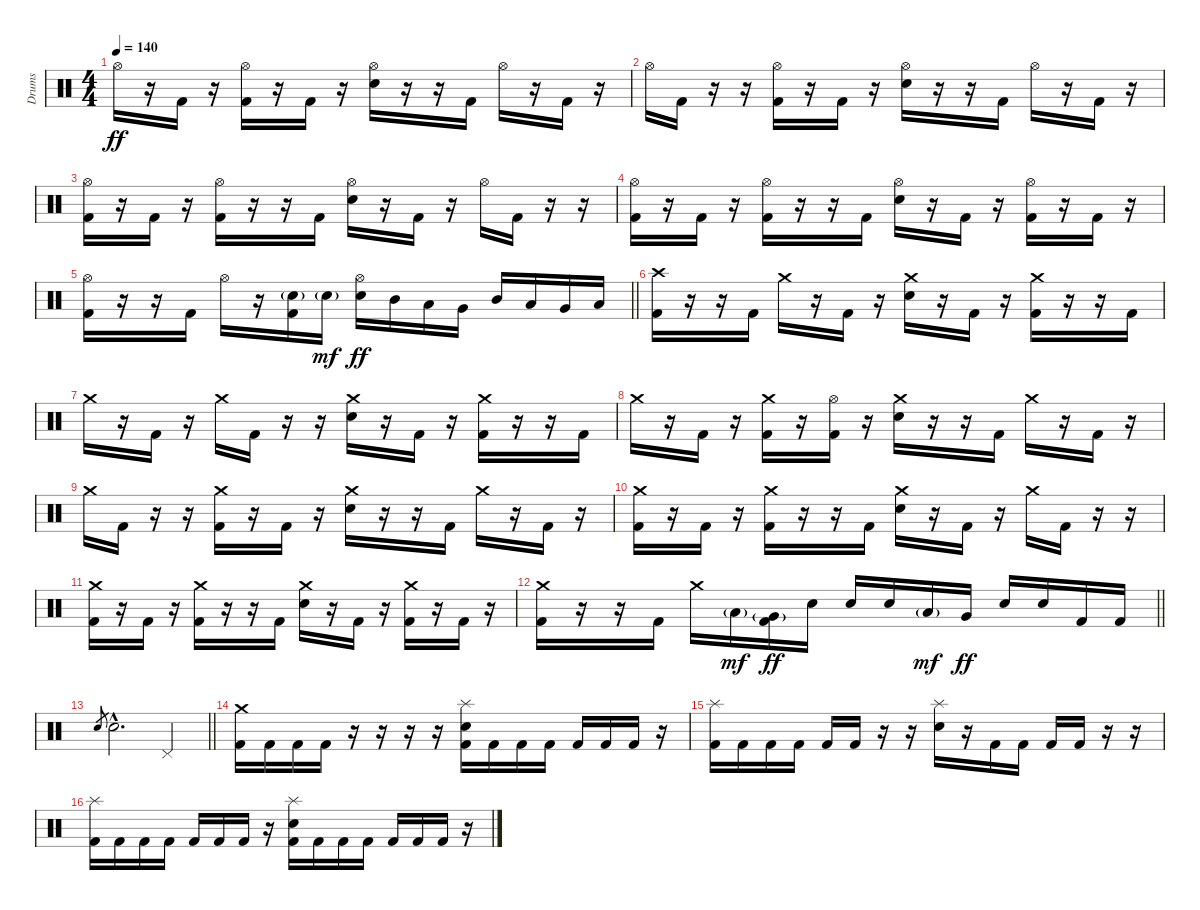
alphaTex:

\track ("Drums" "Drums") {instrument percussion}
\staff {score}
\articulation defaults
\ts (4 4)
\tempo 140
\clef neutral
\ks c "Hi-Hat (open)".16{dy ff}
r.16 "Kick (hit) 2".16 r.16 ("Hi-Hat (open)" "Kick (hit) 2").16 r.16 "Kick (hit) 2".16 r.16 ("Hi-Hat (open)" "Electric Snare (hit)").16 r.16 r.16 "Kick (hit) 2".16 "Hi-Hat (open)".16 r.16 "Kick (hit) 2".16 r.16 |
"Hi-Hat (open)".16 "Kick (hit) 2".16 r.16 r.16 ("Hi-Hat (open)" "Kick (hit) 2").16 r.16 "Kick (hit) 2".16 r.16 ("Hi-Hat (open)" "Electric Snare (hit)").16 r.16 r.16 "Kick (hit) 2".16 "Hi-Hat (open)".16 r.16 "Kick (hit) 2".16 r.16 |
("Hi-Hat (open)" "Kick (hit) 2").16 r.16 "Kick (hit) 2".16 r.16 ("Hi-Hat (open)" "Kick (hit) 2").16 r.16 r.16 "Kick (hit) 2".16 ("Hi-Hat (open)" "Electric Snare (hit)").16 r.16 "Kick (hit) 2".16 r.16 "Hi-Hat (open)".16 "Kick (hit) 2".16 r.16 r.16 |
("Hi-Hat (open)" "Kick (hit) 2").16 r.16 "Kick (hit) 2".16 r.16 ("Hi-Hat (open)" "Kick (hit) 2").16 r.16 r.16 "Kick (hit) 2".16 ("Hi-Hat (open)" "Electric Snare (hit)").16 r.16 "Kick (hit) 2".16 r.16 ("Hi-Hat (open)" "Kick (hit) 2").16 r.16 "Kick (hit) 2".16 r.16 |
\barLineRight lightlight
("Hi-Hat (open)" "Kick (hit) 2").16 r.16 r.16 "Kick (hit) 2".16 "Hi-Hat (open)".16 r.16 ("Electric Snare (hit)"{g} "Kick (hit) 2").16 "Electric Snare (hit)"{g}.16{dy mf} ("Hi-Hat (open)" "Electric Snare (hit)").16{dy ff} "Mid Tom (hit)".16 "Low Tom (hit)".16 "Very Low Tom (hit)".16 "Mid Tom (hit)".16 "Low Tom (hit)".16 "Very Low Tom (hit)".16 "Low Floor Tom (hit)".16 |
\section ("" "")
("Crash high (hit)" "Kick (hit) 2").16 r.16 r.16 "Kick (hit) 2".16 "Crash medium (hit)".16 r.16 "Kick (hit) 2".16 r.16 ("Crash medium (hit)" "Electric Snare (hit)").16 r.16 "Kick (hit) 2".16 r.16 ("Crash medium (hit)" "Kick (hit) 2").16 r.16 r.16 "Kick (hit) 2".16 |
"Crash medium (hit)".16 r.16 "Kick (hit) 2".16 r.16 "Crash medium (hit)".16 "Kick (hit) 2".16 r.16 r.16 ("Crash medium (hit)" "Electric Snare (hit)").16 r.16 "Kick (hit) 2".16 r.16 ("Crash medium (hit)" "Kick (hit) 2").16 r.16 r.16 "Kick (hit) 2".16 |
"Crash medium (hit)".16 r.16 "Kick (hit) 2".16 r.16 ("Crash medium (hit)" "Kick (hit) 2").16 r.16 ("Hi-Hat (open)" "Kick (hit) 2").16 r.16 ("Crash medium (hit)" "Electric Snare (hit)").16 r.16 r.16 "Kick (hit) 2".16 "Crash medium (hit)".16 r.16 "Kick (hit) 2".16 r.16 |
"Crash medium (hit)".16 "Kick (hit) 2".16 r.16 r.16 ("Crash medium (hit)" "Kick (hit) 2").16 r.16 "Kick (hit) 2".16 r.16 ("Crash medium (hit)" "Electric Snare (hit)").16 r.16 r.16 "Kick (hit) 2".16 "Crash medium (hit)".16 r.16 "Kick (hit) 2".16 r.16 |
("Crash medium (hit)" "Kick (hit) 2").16 r.16 "Kick (hit) 2".16 r.16 ("Crash medium (hit)" "Kick (hit) 2").16 r.16 r.16 "Kick (hit) 2".16 ("Crash medium (hit)" "Electric Snare (hit)").16 r.16 "Kick (hit) 2".16 r.16 "Crash medium (hit)".16 "Kick (hit) 2".16 r.16 r.16 |
("Crash medium (hit)" "Kick (hit) 2").16 r.16 "Kick (hit) 2".16 r.16 ("Crash medium (hit)" "Kick (hit) 2").16 r.16 r.16 "Kick (hit) 2".16 ("Crash medium (hit)" "Electric Snare (hit)").16 r.16 "Kick (hit) 2".16 r.16 ("Crash medium (hit)" "Kick (hit) 2").16 r.16 "Kick (hit) 2".16 r.16 |
\barLineRight lightlight
("Crash medium (hit)" "Kick (hit) 2").16 r.16 r.16 "Kick (hit) 2".16 "Crash medium (hit)".16 "Low Tom (hit)"{g}.16{dy mf} ("Very Low Tom (hit)"{g} "Kick (hit) 2").16{dy ff} "Electric Snare (hit)".16 "Electric Snare (hit)".16 "Electric Snare (hit)".16 "Low Tom (hit)"{g}.16{dy mf} "Very Low Tom (hit)".16{dy ff} "Electric Snare (hit)".16 "Electric Snare (hit)".16 "Kick (hit) 2".16 "Kick (hit) 2".16 |
\barLineRight lightlight "Electric Snare (hit)".8{gr} "Electric Snare (hit)"{hac}.2{d} "Pedal Hi-Hat (hit)".4
|
\section ("" "")
("Crash medium (hit)" "Kick (hit) 2").16 "Kick (hit) 2".16 "Kick (hit) 2".16 "Kick (hit) 2".16 r.16 r.16 r.16 r.16 ("Splash (hit)" "Electric Snare (hit)" "Kick (hit) 2").16 "Kick (hit) 2".16 "Kick (hit) 2".16 "Kick (hit) 2".16 "Kick (hit) 2".16 "Kick (hit) 2".16 "Kick (hit) 2".16 r.16 |
("Splash (hit)" "Kick (hit) 2").16 "Kick (hit) 2".16 "Kick (hit) 2".16 "Kick (hit) 2".16 "Kick (hit) 2".16 "Kick (hit) 2".16 r.16 r.16 ("Splash (hit)" "Electric Snare (hit)").16 r.16 "Kick (hit) 2".16 "Kick (hit) 2".16 "Kick (hit) 2".16 "Kick (hit) 2".16 r.16 r.16 |
("Splash (hit)" "Kick (hit) 2").16 "Kick (hit) 2".16 "Kick (hit) 2".16 "Kick (hit) 2".16 "Kick (hit) 2".16 "Kick (hit) 2".16 "Kick (hit) 2".16 r.16 ("Splash (hit)" "Electric Snare (hit)" "Kick (hit) 2").16 "Kick (hit) 2".16 "Kick (hit) 2".16 "Kick (hit) 2".16 "Kick (hit) 2".16 "Kick (hit) 2".16 "Kick (hit) 2".16 r.16
